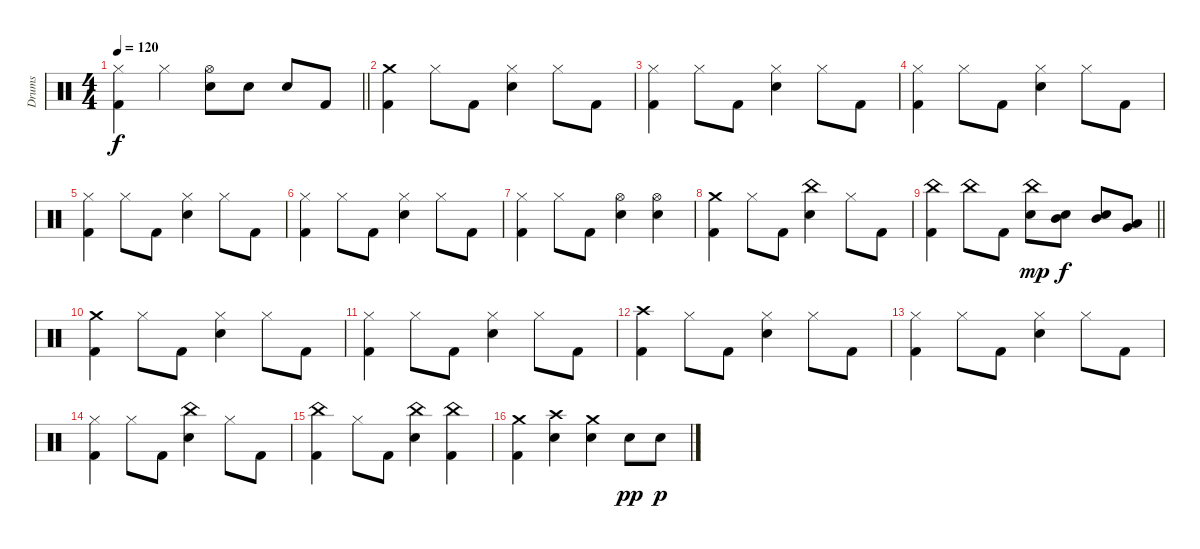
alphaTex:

\track ("Drums" "Drums") {instrument percussion}
\staff {score}
\articulation defaults
\ts (4 4)
\tempo 120
\clef neutral
\barLineRight lightlight
\ks c
("Hi-Hat (closed)" "Kick (hit) 2").4{dy f} "Hi-Hat (closed)".4 ("Hi-Hat (open)" "Electric Snare (hit)").8 "Electric Snare (hit)".8 "Electric Snare (hit)".8 "Kick (hit) 2".8 |
("Crash medium (hit)" "Kick (hit) 2").4 "Hi-Hat (closed)".8 "Kick (hit) 2".8 ("Hi-Hat (closed)" "Electric Snare (hit)").4 "Hi-Hat (closed)".8 "Kick (hit) 2".8 |
("Hi-Hat (closed)" "Kick (hit) 2").4 "Hi-Hat (closed)".8 "Kick (hit) 2".8 ("Hi-Hat (closed)" "Electric Snare (hit)").4 "Hi-Hat (closed)".8 "Kick (hit) 2".8 |
("Hi-Hat (closed)" "Kick (hit) 2").4 "Hi-Hat (closed)".8 "Kick (hit) 2".8 ("Hi-Hat (closed)" "Electric Snare (hit)").4 "Hi-Hat (closed)".8 "Kick (hit) 2".8 |
("Hi-Hat (closed)" "Kick (hit) 2").4 "Hi-Hat (closed)".8 "Kick (hit) 2".8 ("Hi-Hat (closed)" "Electric Snare (hit)").4 "Hi-Hat (closed)".8 "Kick (hit) 2".8 |
("Hi-Hat (closed)" "Kick (hit) 2").4 "Hi-Hat (closed)".8 "Kick (hit) 2".8 ("Hi-Hat (closed)" "Electric Snare (hit)").4 "Hi-Hat (closed)".8 "Kick (hit) 2".8 |
("Hi-Hat (closed)" "Kick (hit) 2").4 "Hi-Hat (closed)".8 "Kick (hit) 2".8 ("Hi-Hat (open)" "Electric Snare (hit)").4 ("Hi-Hat (open)" "Electric Snare (hit)").4 |
("Crash medium (hit)" "Kick (hit) 2").4 "Hi-Hat (closed)".8 "Kick (hit) 2".8 ("China (hit)" "Electric Snare (hit)").4 "Hi-Hat (closed)".8 "Kick (hit) 2".8 |
\barLineRight lightlight
("China (hit)" "Kick (hit) 2").4 "China (hit)".8 "Kick (hit) 2".8 ("China (hit)" "Electric Snare (hit)").8{dy mp} ("Mid Tom (hit)" "Electric Snare (hit)").8{dy f} ("Mid Tom (hit)" "Electric Snare (hit)").8 ("Low Tom (hit)" "Very Low Tom (hit)").8 |
("Crash medium (hit)" "Kick (hit) 2").4 "Hi-Hat (closed)".8 "Kick (hit) 2".8 ("Hi-Hat (closed)" "Electric Snare (hit)").4 "Hi-Hat (closed)".8 "Kick (hit) 2".8 |
("Hi-Hat (closed)" "Kick (hit) 2").4 "Hi-Hat (closed)".8 "Kick (hit) 2".8 ("Hi-Hat (closed)" "Electric Snare (hit)").4 "Hi-Hat (closed)".8 "Kick (hit) 2".8 |
("Crash high (hit)" "Kick (hit) 2").4 "Hi-Hat (closed)".8 "Kick (hit) 2".8 ("Hi-Hat (closed)" "Electric Snare (hit)").4 "Hi-Hat (closed)".8 "Kick (hit) 2".8 |
("Hi-Hat (closed)" "Kick (hit) 2").4 "Hi-Hat (closed)".8 "Kick (hit) 2".8 ("Hi-Hat (closed)" "Electric Snare (hit)").4 "Hi-Hat (closed)".8 "Kick (hit) 2".8 |
("Hi-Hat (closed)" "Kick (hit) 2").4 "Hi-Hat (closed)".8 "Kick (hit) 2".8 ("China (hit)" "Electric Snare (hit)").4 "Hi-Hat (closed)".8 "Kick (hit) 2".8 |
("China (hit)" "Kick (hit) 2").4 "Hi-Hat (closed)".8 "Kick (hit) 2".8 ("China (hit)" "Electric Snare (hit)").4 ("China (hit)" "Kick (hit) 2").4 |
("Crash medium (hit)" "Kick (hit) 2").4 ("Crash high (hit)" "Electric Snare (hit)").4 ("Crash medium (hit)" "Electric Snare (hit)").4 "Electric Snare (hit)".8{dy pp} "Electric Snare (hit)".8{dy p}
